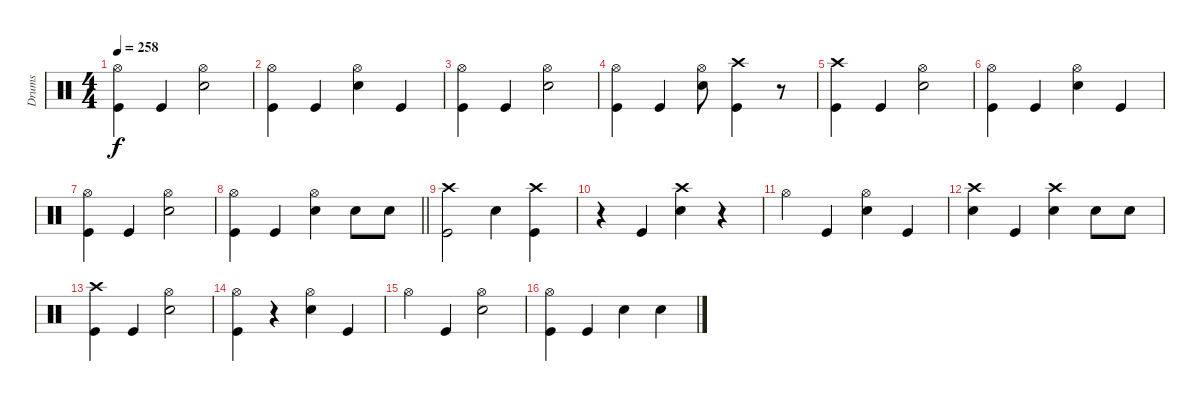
\track ("Drums" "Drums") {instrument percussion}
\staff {score}
\articulation defaults
\ts (4 4)
\tempo 258
\clef neutral
\ks c
("Hi-Hat (open)" "Kick (hit)").4{dy f} "Kick (hit)".4 ("Hi-Hat (open)" "Electric Snare (hit)").2 |
("Hi-Hat (open)" "Kick (hit)").4 "Kick (hit)".4 ("Hi-Hat (open)" "Electric Snare (hit)").4 "Kick (hit)".4 |
("Hi-Hat (open)" "Kick (hit)").4 "Kick (hit)".4 ("Hi-Hat (open)" "Electric Snare (hit)").2 |
("Hi-Hat (open)" "Kick (hit)").4 "Kick (hit)".4 ("Hi-Hat (open)" "Electric Snare (hit)").8 ("Crash high (hit)" "Kick (hit)").4 r.8 |
("Crash high (hit)" "Kick (hit)").4 "Kick (hit)".4 ("Hi-Hat (open)" "Electric Snare (hit)").2 |
("Hi-Hat (open)" "Kick (hit)").4 "Kick (hit)".4 ("Hi-Hat (open)" "Electric Snare (hit)").4 "Kick (hit)".4 |
("Hi-Hat (open)" "Kick (hit)").4 "Kick (hit)".4 ("Hi-Hat (open)" "Electric Snare (hit)").2 |
\barLineRight lightlight
("Hi-Hat (open)" "Kick (hit)").4 "Kick (hit)".4 ("Hi-Hat (open)" "Electric Snare (hit)").4 "Electric Snare (hit)".8 "Electric Snare (hit)".8 |
\section ("" "")
("Crash high (hit)" "Kick (hit)").2 "Electric Snare (hit)".4 ("Crash high (hit)" "Kick (hit)").4 |
r.4 "Kick (hit)".4 ("Crash high (hit)" "Electric Snare (hit)").4 r.4 |
"Hi-Hat (open)".4 "Kick (hit)".4 ("Hi-Hat (open)" "Electric Snare (hit)").4 "Kick (hit)".4 |
("Crash high (hit)" "Electric Snare (hit)").4 "Kick (hit)".4 ("Crash high (hit)" "Electric Snare (hit)").4 "Electric Snare (hit)".8 "Electric Snare (hit)".8 |
("Crash high (hit)" "Kick (hit)").4 "Kick (hit)".4 ("Hi-Hat (open)" "Electric Snare (hit)").2 |
("Hi-Hat (open)" "Kick (hit)").4 r.4 ("Hi-Hat (open)" "Electric Snare (hit)").4 "Kick (hit)".4 |
"Hi-Hat (open)".4 "Kick (hit)".4 ("Hi-Hat (open)" "Electric Snare (hit)").2 |
("Hi-Hat (open)" "Kick (hit)").4 "Kick (hit)".4 "Electric Snare (hit)".4 "Electric Snare (hit)".4
